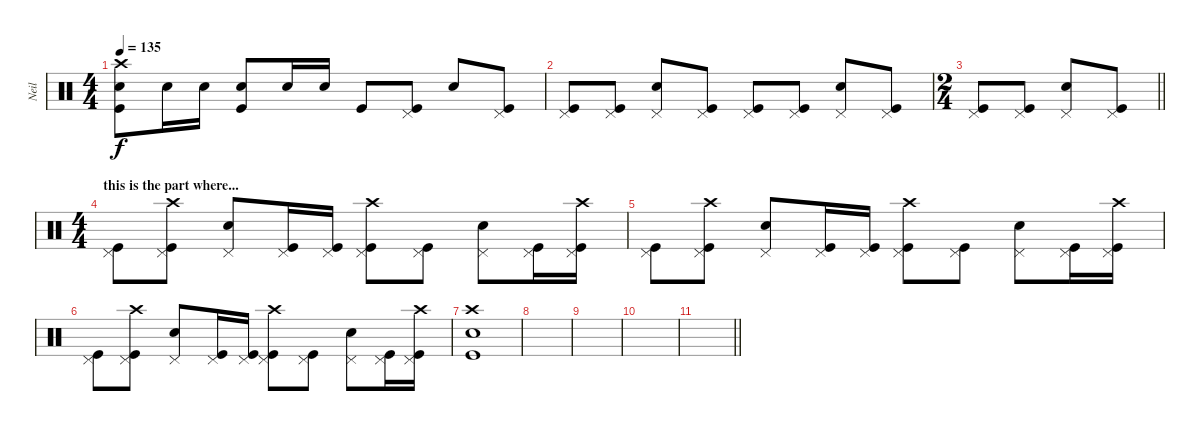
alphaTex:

\track ("Neil" "Neil") {instrument percussion}
\staff {score}
\articulation defaults
\ts (4 4)
\tempo 135
\clef neutral
\ks c
("Crash high (hit)" "Snare (hit) 2" "Kick (hit)").8{dy f} "Snare (hit) 2".16 "Snare (hit) 2".16 ("Snare (hit) 2" "Kick (hit)").8 "Snare (hit) 2".16 "Snare (hit) 2".16 "Kick (hit)".8 ("Pedal Hi-Hat (hit)" "Kick (hit)").8 "Snare (hit) 2".8 ("Pedal Hi-Hat (hit)" "Kick (hit)").8 |
("Pedal Hi-Hat (hit)" "Kick (hit)").8 ("Pedal Hi-Hat (hit)" "Kick (hit)").8 ("Pedal Hi-Hat (hit)" "Snare (hit) 2").8 ("Pedal Hi-Hat (hit)" "Kick (hit)").8 ("Pedal Hi-Hat (hit)" "Kick (hit)").8 ("Pedal Hi-Hat (hit)" "Kick (hit)").8 ("Pedal Hi-Hat (hit)" "Snare (hit) 2").8 ("Pedal Hi-Hat (hit)" "Kick (hit)").8 |
\ts (2 4)
\barLineRight lightlight
("Pedal Hi-Hat (hit)" "Kick (hit)").8 ("Pedal Hi-Hat (hit)" "Kick (hit)").8 ("Pedal Hi-Hat (hit)" "Snare (hit) 2").8 ("Pedal Hi-Hat (hit)" "Kick (hit)").8 |
\ts (4 4)
\section ("" "this is the part where...")
("Pedal Hi-Hat (hit)" "Kick (hit)").8 ("Crash high (hit)" "Pedal Hi-Hat (hit)" "Kick (hit)").8 ("Pedal Hi-Hat (hit)" "Snare (hit) 2").8 ("Pedal Hi-Hat (hit)" "Kick (hit)").16 ("Pedal Hi-Hat (hit)" "Kick (hit)").16 ("Crash high (hit)" "Pedal Hi-Hat (hit)" "Kick (hit)").8 ("Pedal Hi-Hat (hit)" "Kick (hit)").8 ("Pedal Hi-Hat (hit)" "Snare (hit) 2").8 ("Pedal Hi-Hat (hit)" "Kick (hit)").16 ("Crash high (hit)" "Pedal Hi-Hat (hit)" "Kick (hit)").16 |
("Pedal Hi-Hat (hit)" "Kick (hit)").8 ("Crash high (hit)" "Pedal Hi-Hat (hit)" "Kick (hit)").8 ("Pedal Hi-Hat (hit)" "Snare (hit) 2").8 ("Pedal Hi-Hat (hit)" "Kick (hit)").16 ("Pedal Hi-Hat (hit)" "Kick (hit)").16 ("Crash high (hit)" "Pedal Hi-Hat (hit)" "Kick (hit)").8 ("Pedal Hi-Hat (hit)" "Kick (hit)").8 ("Pedal Hi-Hat (hit)" "Snare (hit) 2").8 ("Pedal Hi-Hat (hit)" "Kick (hit)").16 ("Crash high (hit)" "Pedal Hi-Hat (hit)" "Kick (hit)").16 |
("Pedal Hi-Hat (hit)" "Kick (hit)").8 ("Crash high (hit)" "Pedal Hi-Hat (hit)" "Kick (hit)").8 ("Pedal Hi-Hat (hit)" "Snare (hit) 2").8 ("Pedal Hi-Hat (hit)" "Kick (hit)").16 ("Pedal Hi-Hat (hit)" "Kick (hit)").16 ("Crash high (hit)" "Pedal Hi-Hat (hit)" "Kick (hit)").8 ("Pedal Hi-Hat (hit)" "Kick (hit)").8 ("Pedal Hi-Hat (hit)" "Snare (hit) 2").8 ("Pedal Hi-Hat (hit)" "Kick (hit)").16 ("Crash high (hit)" "Pedal Hi-Hat (hit)" "Kick (hit)").16 |
("Crash high (hit)" "Snare (hit) 2" "Kick (hit)").1 |
|
|
|
\barLineRight lightlight
